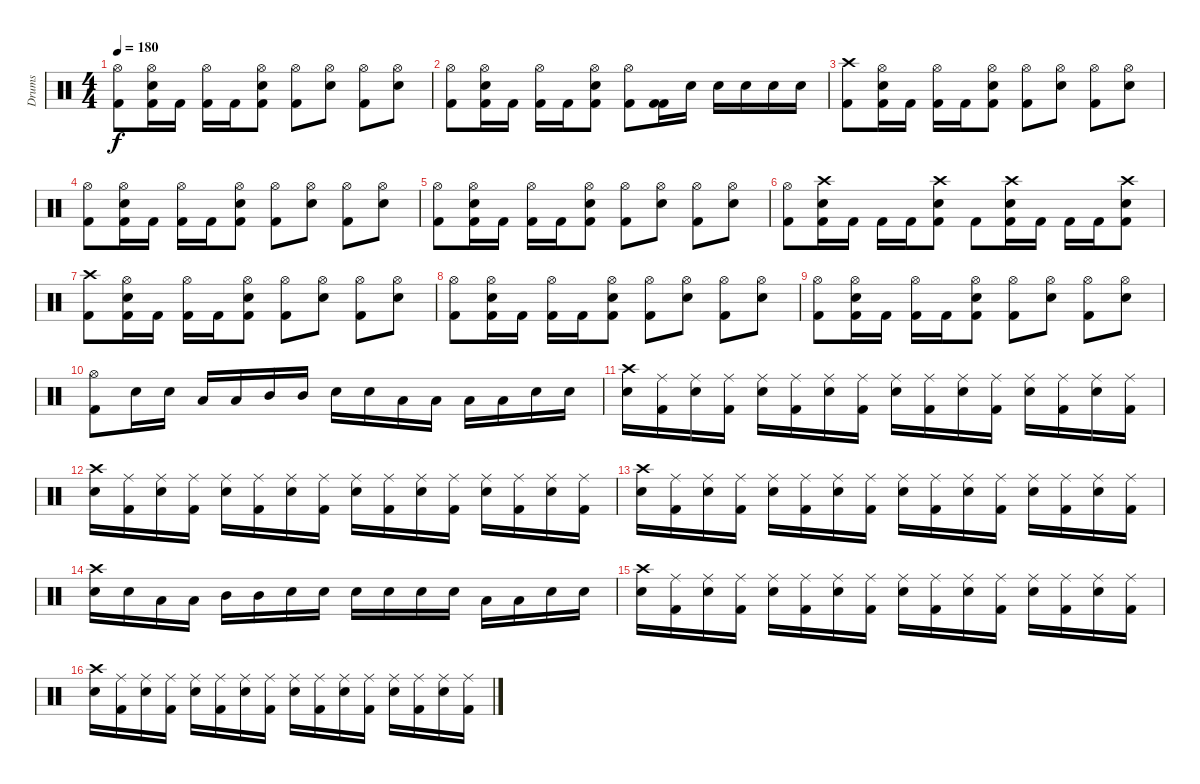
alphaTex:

\track ("Drums" "Drums") {instrument percussion}
\staff {score}
\articulation defaults
\ts (4 4)
\tempo 180
\clef neutral
\ks c
("Kick (hit) 2" "Hi-Hat (open)").8{dy f} ("Kick (hit) 2" "Snare (hit) 2" "Hi-Hat (open)").16 "Kick (hit) 2".16 ("Kick (hit) 2" "Hi-Hat (open)").16 "Kick (hit) 2".16 ("Kick (hit) 2" "Snare (hit) 2" "Hi-Hat (open)").8 ("Hi-Hat (open)" "Kick (hit) 2").8 ("Snare (hit) 2" "Hi-Hat (open)").8 ("Hi-Hat (open)" "Kick (hit) 2").8 ("Snare (hit) 2" "Hi-Hat (open)").8 |
("Kick (hit) 2" "Hi-Hat (open)").8 ("Kick (hit) 2" "Snare (hit) 2" "Hi-Hat (open)").16 "Kick (hit) 2".16 ("Kick (hit) 2" "Hi-Hat (open)").16 "Kick (hit) 2".16 ("Kick (hit) 2" "Snare (hit) 2" "Hi-Hat (open)").8 ("Hi-Hat (open)" "Kick (hit) 2").8 ("Kick (hit) 2" "Kick (hit) 2").16 "Snare (hit) 2".16 "Snare (hit) 2".16 "Snare (hit) 2".16 "Snare (hit) 2".16 "Snare (hit) 2".16 |
("Kick (hit) 2" "Crash high (hit)").8 ("Kick (hit) 2" "Snare (hit) 2" "Hi-Hat (open)").16 "Kick (hit) 2".16 ("Kick (hit) 2" "Hi-Hat (open)").16 "Kick (hit) 2".16 ("Kick (hit) 2" "Snare (hit) 2" "Hi-Hat (open)").8 ("Hi-Hat (open)" "Kick (hit) 2").8 ("Snare (hit) 2" "Hi-Hat (open)").8 ("Hi-Hat (open)" "Kick (hit) 2").8 ("Snare (hit) 2" "Hi-Hat (open)").8 |
("Kick (hit) 2" "Hi-Hat (open)").8 ("Kick (hit) 2" "Snare (hit) 2" "Hi-Hat (open)").16 "Kick (hit) 2".16 ("Kick (hit) 2" "Hi-Hat (open)").16 "Kick (hit) 2".16 ("Kick (hit) 2" "Snare (hit) 2" "Hi-Hat (open)").8 ("Hi-Hat (open)" "Kick (hit) 2").8 ("Snare (hit) 2" "Hi-Hat (open)").8 ("Hi-Hat (open)" "Kick (hit) 2").8 ("Snare (hit) 2" "Hi-Hat (open)").8 |
("Kick (hit) 2" "Hi-Hat (open)").8 ("Kick (hit) 2" "Snare (hit) 2" "Hi-Hat (open)").16 "Kick (hit) 2".16 ("Kick (hit) 2" "Hi-Hat (open)").16 "Kick (hit) 2".16 ("Kick (hit) 2" "Snare (hit) 2" "Hi-Hat (open)").8 ("Hi-Hat (open)" "Kick (hit) 2").8 ("Snare (hit) 2" "Hi-Hat (open)").8 ("Hi-Hat (open)" "Kick (hit) 2").8 ("Snare (hit) 2" "Hi-Hat (open)").8 |
("Kick (hit) 2" "Hi-Hat (open)").8 ("Kick (hit) 2" "Snare (hit) 2" "Crash high (hit)").16 "Kick (hit) 2".16 "Kick (hit) 2".16 "Kick (hit) 2".16 ("Kick (hit) 2" "Snare (hit) 2" "Crash high (hit)").8 "Kick (hit) 2".8 ("Kick (hit) 2" "Snare (hit) 2" "Crash high (hit)").16 "Kick (hit) 2".16 "Kick (hit) 2".16 "Kick (hit) 2".16 ("Crash high (hit)" "Kick (hit) 2" "Snare (hit) 2").8 |
("Kick (hit) 2" "Crash high (hit)").8 ("Kick (hit) 2" "Snare (hit) 2" "Hi-Hat (open)").16 "Kick (hit) 2".16 ("Kick (hit) 2" "Hi-Hat (open)").16 "Kick (hit) 2".16 ("Kick (hit) 2" "Snare (hit) 2" "Hi-Hat (open)").8 ("Hi-Hat (open)" "Kick (hit) 2").8 ("Snare (hit) 2" "Hi-Hat (open)").8 ("Hi-Hat (open)" "Kick (hit) 2").8 ("Snare (hit) 2" "Hi-Hat (open)").8 |
("Kick (hit) 2" "Hi-Hat (open)").8 ("Kick (hit) 2" "Snare (hit) 2" "Hi-Hat (open)").16 "Kick (hit) 2".16 ("Kick (hit) 2" "Hi-Hat (open)").16 "Kick (hit) 2".16 ("Kick (hit) 2" "Snare (hit) 2" "Hi-Hat (open)").8 ("Hi-Hat (open)" "Kick (hit) 2").8 ("Snare (hit) 2" "Hi-Hat (open)").8 ("Hi-Hat (open)" "Kick (hit) 2").8 ("Snare (hit) 2" "Hi-Hat (open)").8 |
("Kick (hit) 2" "Hi-Hat (open)").8 ("Kick (hit) 2" "Snare (hit) 2" "Hi-Hat (open)").16 "Kick (hit) 2".16 ("Kick (hit) 2" "Hi-Hat (open)").16 "Kick (hit) 2".16 ("Kick (hit) 2" "Snare (hit) 2" "Hi-Hat (open)").8 ("Hi-Hat (open)" "Kick (hit) 2").8 ("Snare (hit) 2" "Hi-Hat (open)").8 ("Hi-Hat (open)" "Kick (hit) 2").8 ("Snare (hit) 2" "Hi-Hat (open)").8 |
("Hi-Hat (open)" "Kick (hit) 2").8 "Snare (hit) 2".16 "Snare (hit) 2".16 "Low Tom (hit)".16 "Low Tom (hit)".16 "Mid Tom (hit)".16 "Mid Tom (hit)".16 "Snare (hit) 2".16 "Snare (hit) 2".16 "Low Tom (hit)".16 "Low Tom (hit)".16 "Low Tom (hit)".16 "Low Tom (hit)".16 "Snare (hit) 2".16 "Snare (hit) 2".16 |
("Crash high (hit)" "Snare (hit) 2").16 ("Ride (middle)" "Kick (hit) 2").16 ("Ride (middle)" "Snare (hit) 2").16 ("Ride (middle)" "Kick (hit) 2").16 ("Ride (middle)" "Snare (hit) 2").16 ("Ride (middle)" "Kick (hit) 2").16 ("Ride (middle)" "Snare (hit) 2").16 ("Ride (middle)" "Kick (hit) 2").16 ("Ride (middle)" "Snare (hit) 2").16 ("Ride (middle)" "Kick (hit) 2").16 ("Ride (middle)" "Snare (hit) 2").16 ("Ride (middle)" "Kick (hit) 2").16 ("Ride (middle)" "Snare (hit) 2").16 ("Ride (middle)" "Kick (hit) 2").16 ("Ride (middle)" "Snare (hit) 2").16 ("Ride (middle)" "Kick (hit) 2").16 |
("Crash high (hit)" "Snare (hit) 2").16 ("Ride (middle)" "Kick (hit) 2").16 ("Ride (middle)" "Snare (hit) 2").16 ("Ride (middle)" "Kick (hit) 2").16 ("Ride (middle)" "Snare (hit) 2").16 ("Ride (middle)" "Kick (hit) 2").16 ("Ride (middle)" "Snare (hit) 2").16 ("Ride (middle)" "Kick (hit) 2").16 ("Ride (middle)" "Snare (hit) 2").16 ("Ride (middle)" "Kick (hit) 2").16 ("Ride (middle)" "Snare (hit) 2").16 ("Ride (middle)" "Kick (hit) 2").16 ("Ride (middle)" "Snare (hit) 2").16 ("Ride (middle)" "Kick (hit) 2").16 ("Ride (middle)" "Snare (hit) 2").16 ("Ride (middle)" "Kick (hit) 2").16 |
("Crash high (hit)" "Snare (hit) 2").16 ("Ride (middle)" "Kick (hit) 2").16 ("Ride (middle)" "Snare (hit) 2").16 ("Ride (middle)" "Kick (hit) 2").16 ("Ride (middle)" "Snare (hit) 2").16 ("Ride (middle)" "Kick (hit) 2").16 ("Ride (middle)" "Snare (hit) 2").16 ("Ride (middle)" "Kick (hit) 2").16 ("Ride (middle)" "Snare (hit) 2").16 ("Ride (middle)" "Kick (hit) 2").16 ("Ride (middle)" "Snare (hit) 2").16 ("Ride (middle)" "Kick (hit) 2").16 ("Ride (middle)" "Snare (hit) 2").16 ("Ride (middle)" "Kick (hit) 2").16 ("Ride (middle)" "Snare (hit) 2").16 ("Ride (middle)" "Kick (hit) 2").16 |
("Snare (hit) 2" "Crash high (hit)").16 "Snare (hit) 2".16 "Low Tom (hit)".16 "Low Tom (hit)".16 "Mid Tom (hit)".16 "Mid Tom (hit)".16 "Snare (hit) 2".16 "Snare (hit) 2".16 "Snare (hit) 2".16 "Snare (hit) 2".16 "Snare (hit) 2".16 "Snare (hit) 2".16 "Low Tom (hit)".16 "Low Tom (hit)".16 "Snare (hit) 2".16 "Snare (hit) 2".16 |
("Crash high (hit)" "Snare (hit) 2").16 ("Ride (middle)" "Kick (hit) 2").16 ("Ride (middle)" "Snare (hit) 2").16 ("Ride (middle)" "Kick (hit) 2").16 ("Ride (middle)" "Snare (hit) 2").16 ("Ride (middle)" "Kick (hit) 2").16 ("Ride (middle)" "Snare (hit) 2").16 ("Ride (middle)" "Kick (hit) 2").16 ("Ride (middle)" "Snare (hit) 2").16 ("Ride (middle)" "Kick (hit) 2").16 ("Ride (middle)" "Snare (hit) 2").16 ("Ride (middle)" "Kick (hit) 2").16 ("Ride (middle)" "Snare (hit) 2").16 ("Ride (middle)" "Kick (hit) 2").16 ("Ride (middle)" "Snare (hit) 2").16 ("Ride (middle)" "Kick (hit) 2").16 |
("Crash high (hit)" "Snare (hit) 2").16 ("Ride (middle)" "Kick (hit) 2").16 ("Ride (middle)" "Snare (hit) 2").16 ("Ride (middle)" "Kick (hit) 2").16 ("Ride (middle)" "Snare (hit) 2").16 ("Ride (middle)" "Kick (hit) 2").16 ("Ride (middle)" "Snare (hit) 2").16 ("Ride (middle)" "Kick (hit) 2").16 ("Ride (middle)" "Snare (hit) 2").16 ("Ride (middle)" "Kick (hit) 2").16 ("Ride (middle)" "Snare (hit) 2").16 ("Ride (middle)" "Kick (hit) 2").16 ("Ride (middle)" "Snare (hit) 2").16 ("Ride (middle)" "Kick (hit) 2").16 ("Ride (middle)" "Snare (hit) 2").16 ("Ride (middle)" "Kick (hit) 2").16
